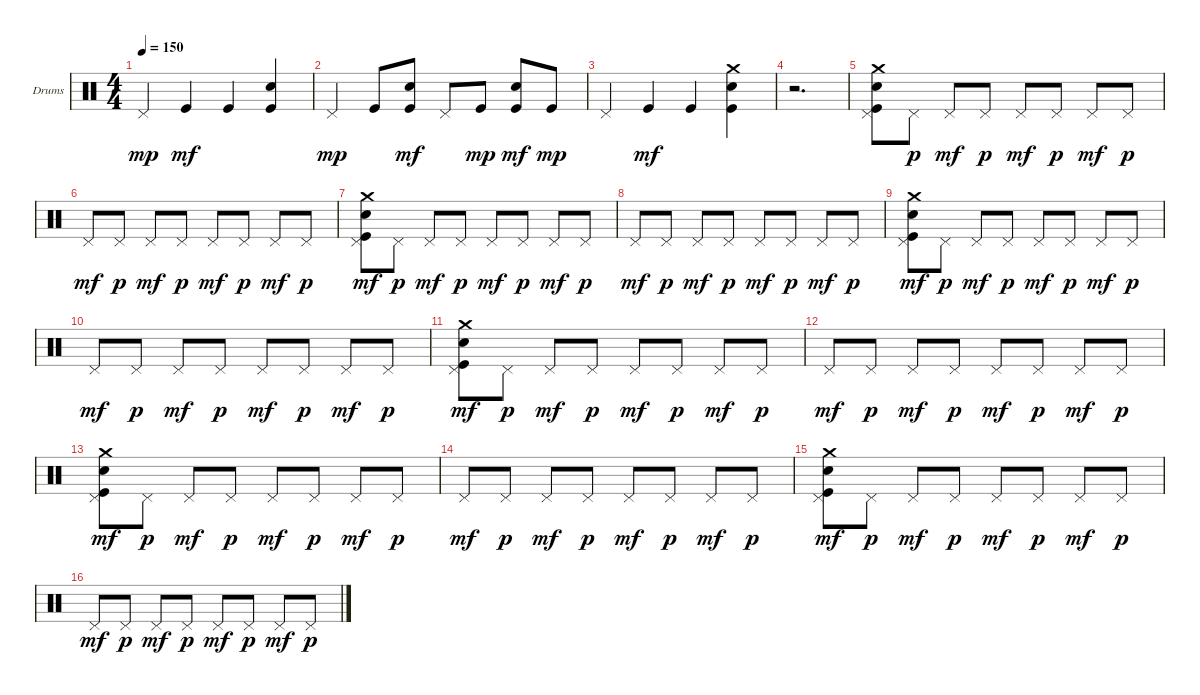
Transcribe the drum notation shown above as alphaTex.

\defaultSystemsLayout 4
\bracketExtendMode groupsimilarinstruments
\firstSystemTrackNameOrientation horizontal
\otherSystemsTrackNameOrientation horizontal
\track ("Е. Кулаков" "Drums") {instrument percussion}
\staff {score}
\articulation defaults
\ts (4 4)
\tempo 150
\clef neutral
\ks c "Pedal Hi-Hat (hit)".4{dy mp} "Kick (hit)".4{dy mf} "Kick (hit)".4
("Snare (hit) 2" "Kick (hit)").4 |
"Pedal Hi-Hat (hit)".4{dy mp} "Kick (hit)".8 ("Kick (hit)" "Snare (hit) 2").8{dy mf} "Pedal Hi-Hat (hit)".8 "Kick (hit)".8{dy mp} ("Kick (hit)" "Snare (hit) 2").8{dy mf} "Kick (hit)".8{dy mp} |
"Pedal Hi-Hat (hit)".4 "Kick (hit)".4{dy mf} "Kick (hit)".4 ("Snare (hit) 2" "Kick (hit)" "Crash medium (hit)").4 |
r.2{d} |
("Pedal Hi-Hat (hit)" "Crash medium (hit)" "Snare (hit) 2" "Kick (hit)").8 "Pedal Hi-Hat (hit)".8{dy p} "Pedal Hi-Hat (hit)".8{dy mf} "Pedal Hi-Hat (hit)".8{dy p} "Pedal Hi-Hat (hit)".8{dy mf} "Pedal Hi-Hat (hit)".8{dy p} "Pedal Hi-Hat (hit)".8{dy mf} "Pedal Hi-Hat (hit)".8{dy p} |
"Pedal Hi-Hat (hit)".8{dy mf} "Pedal Hi-Hat (hit)".8{dy p} "Pedal Hi-Hat (hit)".8{dy mf} "Pedal Hi-Hat (hit)".8{dy p} "Pedal Hi-Hat (hit)".8{dy mf} "Pedal Hi-Hat (hit)".8{dy p} "Pedal Hi-Hat (hit)".8{dy mf} "Pedal Hi-Hat (hit)".8{dy p} |
("Pedal Hi-Hat (hit)" "Crash medium (hit)" "Snare (hit) 2" "Kick (hit)").8{dy mf} "Pedal Hi-Hat (hit)".8{dy p} "Pedal Hi-Hat (hit)".8{dy mf} "Pedal Hi-Hat (hit)".8{dy p} "Pedal Hi-Hat (hit)".8{dy mf} "Pedal Hi-Hat (hit)".8{dy p} "Pedal Hi-Hat (hit)".8{dy mf} "Pedal Hi-Hat (hit)".8{dy p} |
"Pedal Hi-Hat (hit)".8{dy mf} "Pedal Hi-Hat (hit)".8{dy p} "Pedal Hi-Hat (hit)".8{dy mf} "Pedal Hi-Hat (hit)".8{dy p} "Pedal Hi-Hat (hit)".8{dy mf} "Pedal Hi-Hat (hit)".8{dy p} "Pedal Hi-Hat (hit)".8{dy mf} "Pedal Hi-Hat (hit)".8{dy p} |
("Pedal Hi-Hat (hit)" "Crash medium (hit)" "Snare (hit) 2" "Kick (hit)").8{dy mf} "Pedal Hi-Hat (hit)".8{dy p} "Pedal Hi-Hat (hit)".8{dy mf} "Pedal Hi-Hat (hit)".8{dy p} "Pedal Hi-Hat (hit)".8{dy mf} "Pedal Hi-Hat (hit)".8{dy p} "Pedal Hi-Hat (hit)".8{dy mf} "Pedal Hi-Hat (hit)".8{dy p} |
"Pedal Hi-Hat (hit)".8{dy mf} "Pedal Hi-Hat (hit)".8{dy p} "Pedal Hi-Hat (hit)".8{dy mf} "Pedal Hi-Hat (hit)".8{dy p} "Pedal Hi-Hat (hit)".8{dy mf} "Pedal Hi-Hat (hit)".8{dy p} "Pedal Hi-Hat (hit)".8{dy mf} "Pedal Hi-Hat (hit)".8{dy p} |
("Pedal Hi-Hat (hit)" "Crash medium (hit)" "Snare (hit) 2" "Kick (hit)").8{dy mf} "Pedal Hi-Hat (hit)".8{dy p} "Pedal Hi-Hat (hit)".8{dy mf} "Pedal Hi-Hat (hit)".8{dy p} "Pedal Hi-Hat (hit)".8{dy mf} "Pedal Hi-Hat (hit)".8{dy p} "Pedal Hi-Hat (hit)".8{dy mf} "Pedal Hi-Hat (hit)".8{dy p} |
"Pedal Hi-Hat (hit)".8{dy mf} "Pedal Hi-Hat (hit)".8{dy p} "Pedal Hi-Hat (hit)".8{dy mf} "Pedal Hi-Hat (hit)".8{dy p} "Pedal Hi-Hat (hit)".8{dy mf} "Pedal Hi-Hat (hit)".8{dy p} "Pedal Hi-Hat (hit)".8{dy mf} "Pedal Hi-Hat (hit)".8{dy p} |
("Pedal Hi-Hat (hit)" "Crash medium (hit)" "Snare (hit) 2" "Kick (hit)").8{dy mf} "Pedal Hi-Hat (hit)".8{dy p} "Pedal Hi-Hat (hit)".8{dy mf} "Pedal Hi-Hat (hit)".8{dy p} "Pedal Hi-Hat (hit)".8{dy mf} "Pedal Hi-Hat (hit)".8{dy p} "Pedal Hi-Hat (hit)".8{dy mf} "Pedal Hi-Hat (hit)".8{dy p} |
"Pedal Hi-Hat (hit)".8{dy mf} "Pedal Hi-Hat (hit)".8{dy p} "Pedal Hi-Hat (hit)".8{dy mf} "Pedal Hi-Hat (hit)".8{dy p} "Pedal Hi-Hat (hit)".8{dy mf} "Pedal Hi-Hat (hit)".8{dy p} "Pedal Hi-Hat (hit)".8{dy mf} "Pedal Hi-Hat (hit)".8{dy p} |
("Pedal Hi-Hat (hit)" "Crash medium (hit)" "Snare (hit) 2" "Kick (hit)").8{dy mf} "Pedal Hi-Hat (hit)".8{dy p} "Pedal Hi-Hat (hit)".8{dy mf} "Pedal Hi-Hat (hit)".8{dy p} "Pedal Hi-Hat (hit)".8{dy mf} "Pedal Hi-Hat (hit)".8{dy p} "Pedal Hi-Hat (hit)".8{dy mf} "Pedal Hi-Hat (hit)".8{dy p} |
"Pedal Hi-Hat (hit)".8{dy mf} "Pedal Hi-Hat (hit)".8{dy p} "Pedal Hi-Hat (hit)".8{dy mf} "Pedal Hi-Hat (hit)".8{dy p} "Pedal Hi-Hat (hit)".8{dy mf} "Pedal Hi-Hat (hit)".8{dy p} "Pedal Hi-Hat (hit)".8{dy mf} "Pedal Hi-Hat (hit)".8{dy p}
